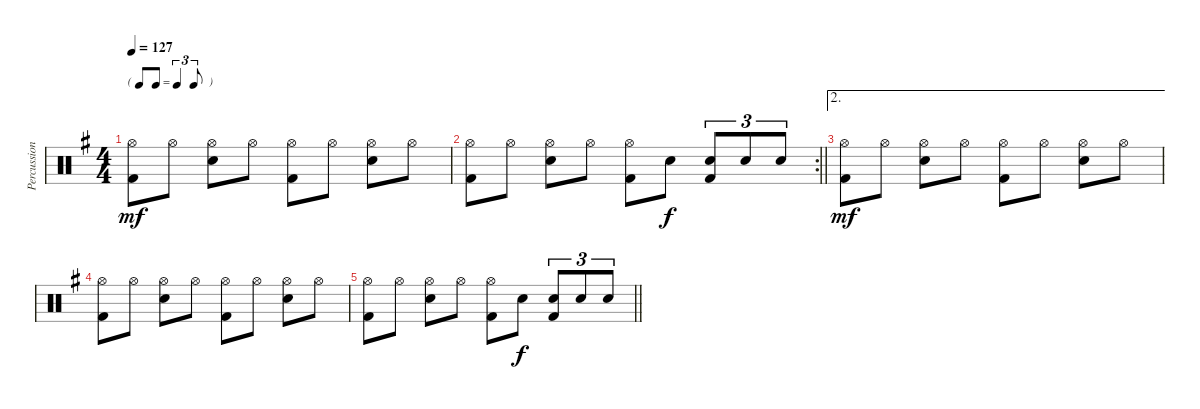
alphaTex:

\track ("Percussion" "Percussion") {instrument percussion}
\staff {score}
\articulation defaults
\ts (4 4)
\tf triplet8th
\tempo 127
\clef neutral
\ks g
("Hi-Hat (open)" "Kick (hit) 2").8{dy mf} "Hi-Hat (open)".8 ("Hi-Hat (open)" "Snare (hit) 2").8 "Hi-Hat (open)".8 ("Hi-Hat (open)" "Kick (hit) 2").8 "Hi-Hat (open)".8 ("Hi-Hat (open)" "Snare (hit) 2").8 "Hi-Hat (open)".8 |
\rc 2
\barLineRight lightlight
("Hi-Hat (open)" "Kick (hit) 2").8 "Hi-Hat (open)".8 ("Hi-Hat (open)" "Snare (hit) 2").8 "Hi-Hat (open)".8 ("Hi-Hat (open)" "Kick (hit) 2").8 "Snare (hit) 2".8{dy f} ("Snare (hit) 2" "Kick (hit) 2").8{tu (3 2)} "Snare (hit) 2".8{tu (3 2)} "Snare (hit) 2".8{tu (3 2)} |
\ae 2
("Hi-Hat (open)" "Kick (hit) 2").8{dy mf} "Hi-Hat (open)".8 ("Hi-Hat (open)" "Snare (hit) 2").8 "Hi-Hat (open)".8 ("Hi-Hat (open)" "Kick (hit) 2").8 "Hi-Hat (open)".8 ("Hi-Hat (open)" "Snare (hit) 2").8 "Hi-Hat (open)".8 |
("Hi-Hat (open)" "Kick (hit) 2").8 "Hi-Hat (open)".8 ("Hi-Hat (open)" "Snare (hit) 2").8 "Hi-Hat (open)".8 ("Hi-Hat (open)" "Kick (hit) 2").8 "Hi-Hat (open)".8 ("Hi-Hat (open)" "Snare (hit) 2").8 "Hi-Hat (open)".8 |
\barLineRight lightlight
("Hi-Hat (open)" "Kick (hit) 2").8 "Hi-Hat (open)".8 ("Hi-Hat (open)" "Snare (hit) 2").8 "Hi-Hat (open)".8 ("Hi-Hat (open)" "Kick (hit) 2").8 "Snare (hit) 2".8{dy f} ("Snare (hit) 2" "Kick (hit) 2").8{tu (3 2)} "Snare (hit) 2".8{tu (3 2)} "Snare (hit) 2".8{tu (3 2)}
